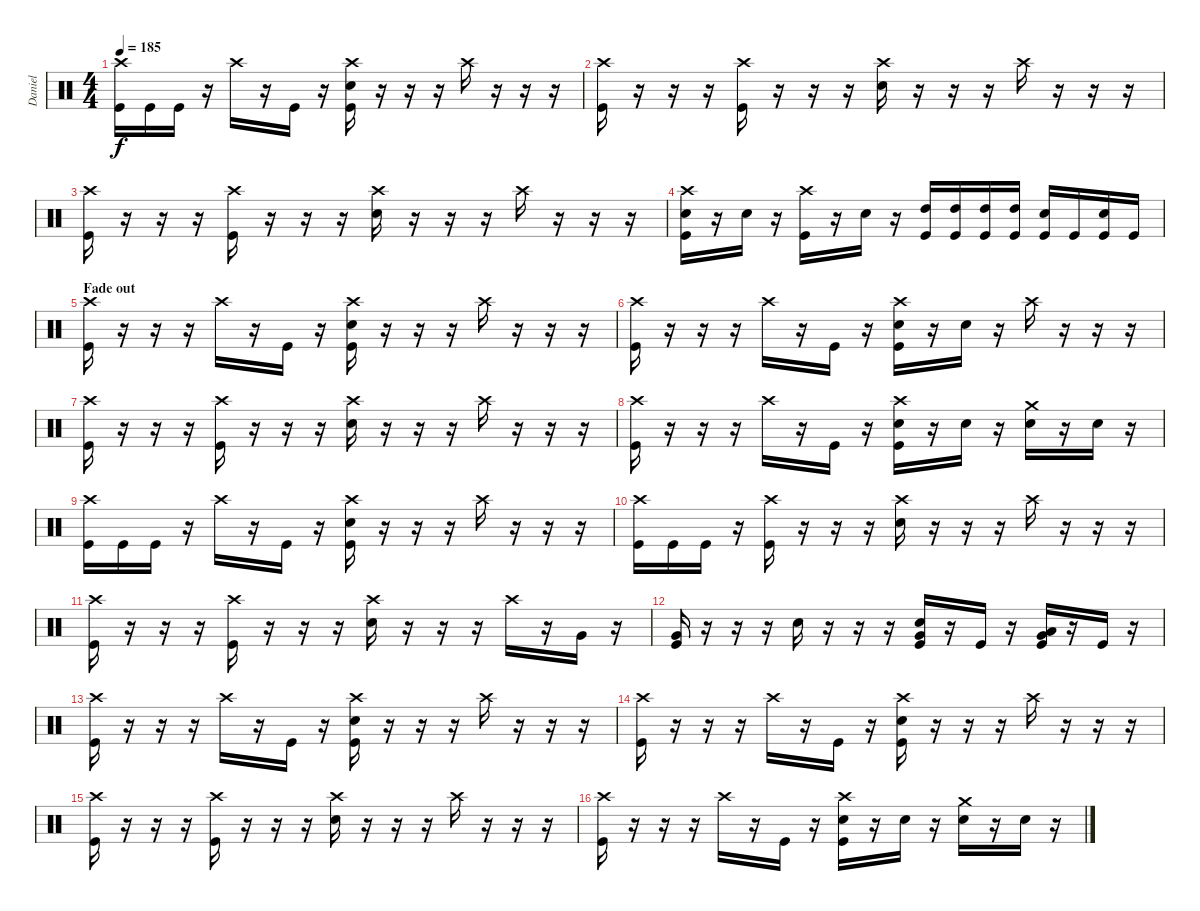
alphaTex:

\track ("Daniel" "Daniel") {instrument percussion}
\staff {score}
\articulation defaults
\ts (4 4)
\tempo 185
\clef neutral
\ks c
("Crash high (hit)" "Kick (hit)").16{dy f} "Kick (hit)".16 "Kick (hit)".16 r.16 "Crash high (hit)".16 r.16 "Kick (hit)".16 r.16 ("Crash high (hit)" "Snare (hit) 2" "Kick (hit)").16 r.16 r.16 r.16 "Crash high (hit)".16 r.16 r.16 r.16 |
("Crash high (hit)" "Kick (hit)").16 r.16 r.16 r.16 ("Crash high (hit)" "Kick (hit)").16 r.16 r.16 r.16 ("Crash high (hit)" "Snare (hit) 2").16 r.16 r.16 r.16 "Crash high (hit)".16 r.16 r.16 r.16 |
("Crash high (hit)" "Kick (hit)").16 r.16 r.16 r.16 ("Crash high (hit)" "Kick (hit)").16 r.16 r.16 r.16 ("Crash high (hit)" "Snare (hit) 2").16 r.16 r.16 r.16 "Crash high (hit)".16 r.16 r.16 r.16 |
("Crash high (hit)" "Snare (hit) 2" "Kick (hit)").16 r.16 "Snare (hit) 2".16 r.16 ("Crash high (hit)" "Kick (hit)").16 r.16 "Snare (hit) 2".16 r.16 ("High Tom (hit)" "Kick (hit)").16 ("High Tom (hit)" "Kick (hit)").16 ("High Tom (hit)" "Kick (hit)").16 ("High Tom (hit)" "Kick (hit)").16 ("Snare (hit) 2" "Kick (hit)").16 "Kick (hit)".16 ("Snare (hit) 2" "Kick (hit)").16 "Kick (hit)".16 |
\section ("" "Fade out")
("Crash high (hit)" "Kick (hit)").16{volume 13} r.16 r.16 r.16 "Crash high (hit)".16 r.16 "Kick (hit)".16 r.16 ("Crash high (hit)" "Snare (hit) 2" "Kick (hit)").16 r.16 r.16 r.16 "Crash high (hit)".16 r.16 r.16 r.16 |
("Crash high (hit)" "Kick (hit)").16 r.16 r.16 r.16 "Crash high (hit)".16 r.16 "Kick (hit)".16 r.16 ("Crash high (hit)" "Snare (hit) 2" "Kick (hit)").16 r.16 "Snare (hit) 2".16 r.16 "Crash high (hit)".16 r.16 r.16 r.16 |
("Crash high (hit)" "Kick (hit)").16 r.16 r.16 r.16 ("Crash high (hit)" "Kick (hit)").16 r.16 r.16 r.16 ("Crash high (hit)" "Snare (hit) 2").16 r.16 r.16 r.16 "Crash high (hit)".16 r.16 r.16 r.16 |
("Crash high (hit)" "Kick (hit)").16 r.16 r.16 r.16 "Crash high (hit)".16 r.16 "Kick (hit)".16 r.16 ("Crash high (hit)" "Snare (hit) 2" "Kick (hit)").16 r.16 "Snare (hit) 2".16 r.16 ("Crash medium (hit)" "Snare (hit) 2").16 r.16 "Snare (hit) 2".16 r.16 |
("Crash high (hit)" "Kick (hit)").16{volume 12} "Kick (hit)".16 "Kick (hit)".16 r.16 "Crash high (hit)".16 r.16 "Kick (hit)".16 r.16 ("Crash high (hit)" "Snare (hit) 2" "Kick (hit)").16 r.16 r.16 r.16 "Crash high (hit)".16 r.16 r.16 r.16 |
("Crash high (hit)" "Kick (hit)").16 "Kick (hit)".16 "Kick (hit)".16 r.16 ("Crash high (hit)" "Kick (hit)").16 r.16 r.16 r.16 ("Crash high (hit)" "Snare (hit) 2").16 r.16 r.16 r.16 "Crash high (hit)".16 r.16 r.16 r.16 |
("Crash high (hit)" "Kick (hit)").16 r.16 r.16 r.16 ("Crash high (hit)" "Kick (hit)").16 r.16 r.16 r.16 ("Crash high (hit)" "Snare (hit) 2").16 r.16 r.16 r.16 "Crash high (hit)".16 r.16 "Very Low Tom (hit)".16 r.16 |
("Very Low Tom (hit)" "Kick (hit)").16 r.16 r.16 r.16 "Snare (hit) 2".16 r.16 r.16 r.16 ("Very Low Tom (hit)" "Snare (hit) 2" "Kick (hit)").16 r.16 "Kick (hit)".16 r.16 ("Low Tom (hit)" "Very Low Tom (hit)" "Kick (hit)").16 r.16 "Kick (hit)".16 r.16 |
("Crash high (hit)" "Kick (hit)").16{volume 11} r.16 r.16 r.16 "Crash high (hit)".16 r.16 "Kick (hit)".16 r.16 ("Crash high (hit)" "Snare (hit) 2" "Kick (hit)").16 r.16 r.16 r.16 "Crash high (hit)".16 r.16 r.16 r.16 |
("Crash high (hit)" "Kick (hit)").16 r.16 r.16 r.16 "Crash high (hit)".16 r.16 "Kick (hit)".16 r.16 ("Crash high (hit)" "Snare (hit) 2" "Kick (hit)").16 r.16 r.16 r.16 "Crash high (hit)".16 r.16 r.16 r.16 |
("Crash high (hit)" "Kick (hit)").16 r.16 r.16 r.16 ("Crash high (hit)" "Kick (hit)").16 r.16 r.16 r.16 ("Crash high (hit)" "Snare (hit) 2").16 r.16 r.16 r.16 "Crash high (hit)".16 r.16 r.16 r.16 |
("Crash high (hit)" "Kick (hit)").16 r.16 r.16 r.16 "Crash high (hit)".16 r.16 "Kick (hit)".16 r.16 ("Crash high (hit)" "Snare (hit) 2" "Kick (hit)").16 r.16 "Snare (hit) 2".16 r.16 ("Crash medium (hit)" "Snare (hit) 2").16 r.16 "Snare (hit) 2".16 r.16
